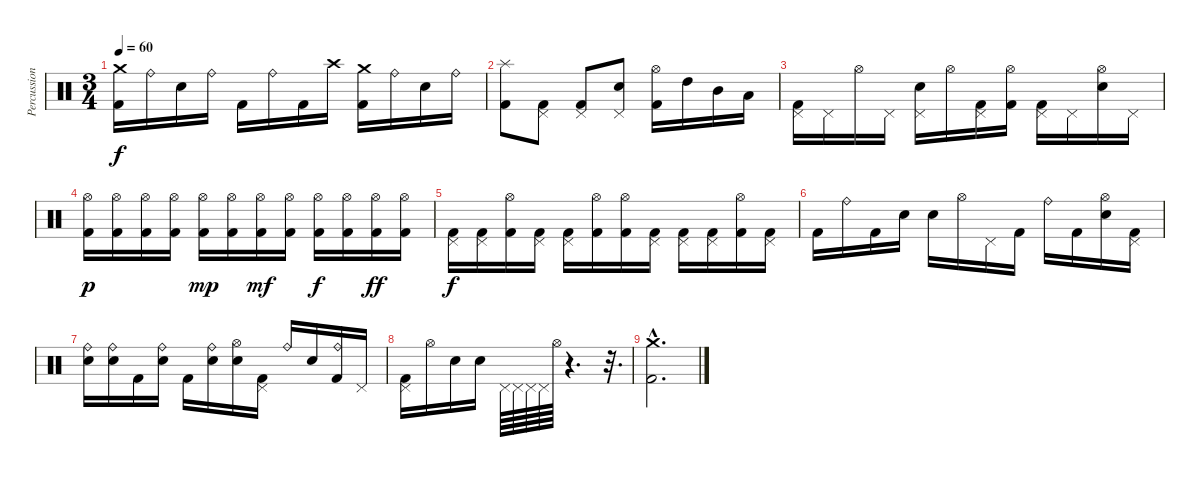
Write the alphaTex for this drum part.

\track ("Percussions" "Percussion") {instrument percussion}
\staff {score}
\articulation defaults
\ts (3 4)
\tempo 60
\clef neutral
\ks c
("Crash medium (hit)" "Kick (hit) 2").16{dy f} "Ride (bell)".16 "Electric Snare (hit)".16 "Ride (bell)".16 "Kick (hit) 2".16 "Ride (bell)".16 "Kick (hit) 2".16 "Crash high (hit)".16 ("Crash medium (hit)" "Kick (hit) 2").16 "Ride (bell)".16 "Electric Snare (hit)".16 "Ride (bell)".16 |
("Splash (hit)" "Kick (hit) 2").8 ("Pedal Hi-Hat (hit)" "Kick (hit) 2").8 ("Pedal Hi-Hat (hit)" "Kick (hit) 2").8 ("Pedal Hi-Hat (hit)" "Electric Snare (hit)").8 ("Hi-Hat (open)" "Kick (hit) 2").16 "High Tom (hit)".16 "Mid Tom (hit)".16 "Low Tom (hit)".16 |
("Pedal Hi-Hat (hit)" "Kick (hit) 2").16 "Pedal Hi-Hat (hit)".16 "Hi-Hat (open)".16 "Pedal Hi-Hat (hit)".16 ("Pedal Hi-Hat (hit)" "Electric Snare (hit)").16 "Hi-Hat (open)".16 ("Pedal Hi-Hat (hit)" "Kick (hit) 2").16 ("Hi-Hat (open)" "Kick (hit) 2").16 ("Pedal Hi-Hat (hit)" "Kick (hit) 2").16 "Pedal Hi-Hat (hit)".16 ("Hi-Hat (open)" "Electric Snare (hit)").16 "Pedal Hi-Hat (hit)".16 |
("Hi-Hat (open)" "Kick (hit) 2").16{dy p} ("Hi-Hat (open)" "Kick (hit) 2").16 ("Hi-Hat (open)" "Kick (hit) 2").16 ("Hi-Hat (open)" "Kick (hit) 2").16 ("Hi-Hat (open)" "Kick (hit) 2").16{dy mp} ("Hi-Hat (open)" "Kick (hit) 2").16 ("Hi-Hat (open)" "Kick (hit) 2").16{dy mf} ("Hi-Hat (open)" "Kick (hit) 2").16 ("Hi-Hat (open)" "Kick (hit) 2").16{dy f} ("Hi-Hat (open)" "Kick (hit) 2").16 ("Hi-Hat (open)" "Kick (hit) 2").16{dy ff} ("Hi-Hat (open)" "Kick (hit) 2").16 |
("Pedal Hi-Hat (hit)" "Kick (hit) 2").16{dy f} ("Pedal Hi-Hat (hit)" "Kick (hit) 2").16 ("Hi-Hat (open)" "Kick (hit) 2").16 ("Pedal Hi-Hat (hit)" "Kick (hit) 2").16 ("Pedal Hi-Hat (hit)" "Kick (hit) 2").16 ("Hi-Hat (open)" "Kick (hit) 2").16 ("Hi-Hat (open)" "Kick (hit) 2").16 ("Pedal Hi-Hat (hit)" "Kick (hit) 2").16 ("Pedal Hi-Hat (hit)" "Kick (hit) 2").16 ("Pedal Hi-Hat (hit)" "Kick (hit) 2").16 ("Hi-Hat (open)" "Kick (hit) 2").16 ("Pedal Hi-Hat (hit)" "Kick (hit) 2").16 |
"Kick (hit) 2".16 "Ride (bell)".16 "Kick (hit) 2".16 "Electric Snare (hit)".16 "Electric Snare (hit)".16 "Hi-Hat (open)".16 "Pedal Hi-Hat (hit)".16 "Kick (hit) 2".16 "Ride (bell)".16 "Kick (hit) 2".16 ("Hi-Hat (open)" "Electric Snare (hit)").16 ("Pedal Hi-Hat (hit)" "Kick (hit) 2").16 |
("Ride (bell)" "Electric Snare (hit)").16 ("Ride (bell)" "Electric Snare (hit)").16 "Kick (hit) 2".16 ("Ride (bell)" "Electric Snare (hit)").16 "Kick (hit) 2".16 ("Ride (bell)" "Electric Snare (hit)").16 ("Hi-Hat (open)" "Electric Snare (hit)").16 ("Pedal Hi-Hat (hit)" "Kick (hit) 2").16 "Ride (bell)".16 "Electric Snare (hit)".16 ("Ride (bell)" "Kick (hit) 2").16 "Pedal Hi-Hat (hit)".16 |
("Pedal Hi-Hat (hit)" "Kick (hit) 2").16 "Hi-Hat (open)".16 "Electric Snare (hit)".16 "Electric Snare (hit)".16 "Pedal Hi-Hat (hit)".64 "Pedal Hi-Hat (hit)".64 "Pedal Hi-Hat (hit)".64 "Pedal Hi-Hat (hit)".64 "Hi-Hat (open)".64 r.4{d} r.32{d} |
("Crash medium (hit)"{hac} "Kick (hit) 2"{hac}).2{d}
